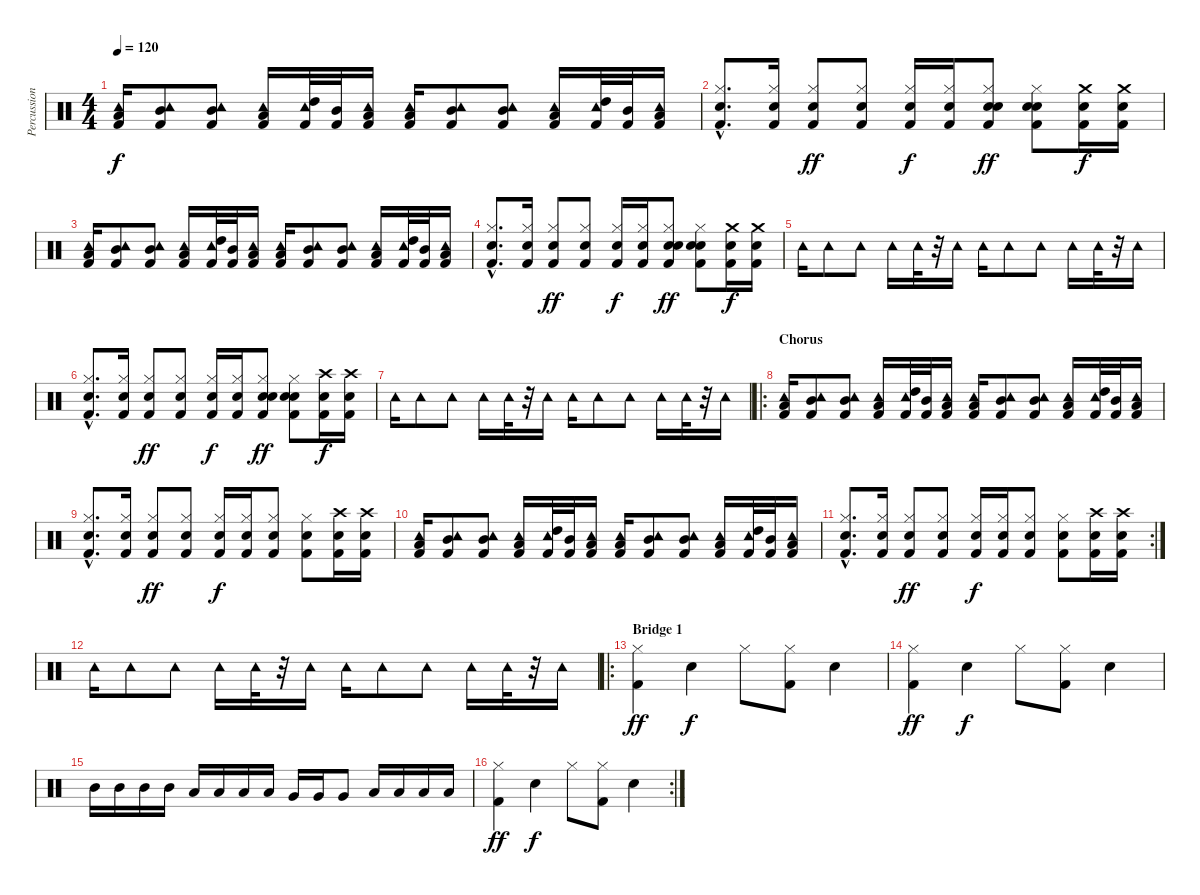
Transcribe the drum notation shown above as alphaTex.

\track ("Percussion" "Percussion") {instrument percussion}
\staff {score}
\articulation defaults
\ts (4 4)
\tempo 120
\clef neutral
\ks c
("Tambourine (hit)" "Low Tom (hit)" "Kick (hit) 2").16{dy f} ("Tambourine (hit)" "Mid Tom (hit)" "Kick (hit) 2").8 ("Tambourine (hit)" "Mid Tom (hit)" "Kick (hit) 2").8 ("Tambourine (hit)" "Low Tom (hit)" "Kick (hit) 2").16 ("Tambourine (hit)" "High Tom (hit)" "Kick (hit) 2").32 ("Mid Tom (hit)" "Kick (hit) 2").32 ("Tambourine (hit)" "Low Tom (hit)" "Kick (hit) 2").16 ("Tambourine (hit)" "Low Tom (hit)" "Kick (hit) 2").16 ("Tambourine (hit)" "Mid Tom (hit)" "Kick (hit) 2").8 ("Tambourine (hit)" "Mid Tom (hit)" "Kick (hit) 2").8 ("Tambourine (hit)" "Low Tom (hit)" "Kick (hit) 2").16 ("Tambourine (hit)" "High Tom (hit)" "Kick (hit) 2").32 ("Mid Tom (hit)" "Kick (hit) 2").32 ("Tambourine (hit)" "Low Tom (hit)" "Kick (hit) 2").16 |
("Hi-Hat (closed)"{hac} "Snare (hit) 2"{hac} "Kick (hit) 2"{hac}).8{d} ("Hi-Hat (closed)" "Snare (hit) 2" "Kick (hit) 2").16 ("Hi-Hat (closed)" "Hand Clap (hit)" "Kick (hit) 2").8{dy ff} ("Hi-Hat (closed)" "Hand Clap (hit)" "Kick (hit) 2").8 ("Hi-Hat (closed)" "Snare (hit) 2" "Kick (hit) 2").16{dy f} ("Hi-Hat (closed)" "Snare (hit) 2" "Kick (hit) 2").16 ("Hi-Hat (closed)" "Hand Clap (hit)" "Electric Snare (hit)" "Kick (hit) 2").8{dy ff} ("Hi-Hat (closed)" "Hand Clap (hit)" "Electric Snare (hit)" "Kick (hit) 2").8 ("Crash medium (hit)" "Electric Snare (hit)" "Kick (hit) 2").16{dy f} ("Crash medium (hit)" "Electric Snare (hit)" "Kick (hit) 2").16 |
("Tambourine (hit)" "Low Tom (hit)" "Kick (hit) 2").16 ("Tambourine (hit)" "Mid Tom (hit)" "Kick (hit) 2").8 ("Tambourine (hit)" "Mid Tom (hit)" "Kick (hit) 2").8 ("Tambourine (hit)" "Low Tom (hit)" "Kick (hit) 2").16 ("Tambourine (hit)" "High Tom (hit)" "Kick (hit) 2").32 ("Mid Tom (hit)" "Kick (hit) 2").32 ("Tambourine (hit)" "Low Tom (hit)" "Kick (hit) 2").16 ("Tambourine (hit)" "Low Tom (hit)" "Kick (hit) 2").16 ("Tambourine (hit)" "Mid Tom (hit)" "Kick (hit) 2").8 ("Tambourine (hit)" "Mid Tom (hit)" "Kick (hit) 2").8 ("Tambourine (hit)" "Low Tom (hit)" "Kick (hit) 2").16 ("Tambourine (hit)" "High Tom (hit)" "Kick (hit) 2").32 ("Mid Tom (hit)" "Kick (hit) 2").32 ("Tambourine (hit)" "Low Tom (hit)" "Kick (hit) 2").16 |
("Hi-Hat (closed)"{hac} "Snare (hit) 2"{hac} "Kick (hit) 2"{hac}).8{d} ("Hi-Hat (closed)" "Snare (hit) 2" "Kick (hit) 2").16 ("Hi-Hat (closed)" "Hand Clap (hit)" "Kick (hit) 2").8{dy ff} ("Hi-Hat (closed)" "Hand Clap (hit)" "Kick (hit) 2").8 ("Hi-Hat (closed)" "Snare (hit) 2" "Kick (hit) 2").16{dy f} ("Hi-Hat (closed)" "Snare (hit) 2" "Kick (hit) 2").16 ("Hi-Hat (closed)" "Hand Clap (hit)" "Electric Snare (hit)" "Kick (hit) 2").8{dy ff} ("Hi-Hat (closed)" "Hand Clap (hit)" "Electric Snare (hit)" "Kick (hit) 2").8 ("Crash medium (hit)" "Electric Snare (hit)" "Kick (hit) 2").16{dy f} ("Crash medium (hit)" "Electric Snare (hit)" "Kick (hit) 2").16 |
"Tambourine (hit)".16 "Tambourine (hit)".8 "Tambourine (hit)".8 "Tambourine (hit)".16 "Tambourine (hit)".32 r.32 "Tambourine (hit)".16 "Tambourine (hit)".16 "Tambourine (hit)".8 "Tambourine (hit)".8 "Tambourine (hit)".16 "Tambourine (hit)".32 r.32 "Tambourine (hit)".16 |
("Hi-Hat (closed)"{hac} "Snare (hit) 2"{hac} "Kick (hit) 2"{hac}).8{d} ("Hi-Hat (closed)" "Snare (hit) 2" "Kick (hit) 2").16 ("Hi-Hat (closed)" "Hand Clap (hit)" "Kick (hit) 2").8{dy ff} ("Hi-Hat (closed)" "Hand Clap (hit)" "Kick (hit) 2").8 ("Hi-Hat (closed)" "Snare (hit) 2" "Kick (hit) 2").16{dy f} ("Hi-Hat (closed)" "Snare (hit) 2" "Kick (hit) 2").16 ("Hi-Hat (closed)" "Hand Clap (hit)" "Electric Snare (hit)" "Kick (hit) 2").8{dy ff} ("Hi-Hat (closed)" "Hand Clap (hit)" "Electric Snare (hit)" "Kick (hit) 2").8 ("Crash high (hit)" "Electric Snare (hit)" "Kick (hit) 2").16{dy f} ("Crash high (hit)" "Electric Snare (hit)" "Kick (hit) 2").16 |
"Tambourine (hit)".16 "Tambourine (hit)".8 "Tambourine (hit)".8 "Tambourine (hit)".16 "Tambourine (hit)".32 r.32 "Tambourine (hit)".16 "Tambourine (hit)".16 "Tambourine (hit)".8 "Tambourine (hit)".8 "Tambourine (hit)".16 "Tambourine (hit)".32 r.32 "Tambourine (hit)".16 |
\ro
\section ("" "Chorus")
("Tambourine (hit)" "Low Tom (hit)" "Kick (hit) 2").16 ("Tambourine (hit)" "Mid Tom (hit)" "Kick (hit) 2").8 ("Tambourine (hit)" "Mid Tom (hit)" "Kick (hit) 2").8 ("Tambourine (hit)" "Low Tom (hit)" "Kick (hit) 2").16 ("Tambourine (hit)" "High Tom (hit)" "Kick (hit) 2").32 ("Mid Tom (hit)" "Kick (hit) 2").32 ("Tambourine (hit)" "Low Tom (hit)" "Kick (hit) 2").16 ("Tambourine (hit)" "Low Tom (hit)" "Kick (hit) 2").16 ("Tambourine (hit)" "Mid Tom (hit)" "Kick (hit) 2").8 ("Tambourine (hit)" "Mid Tom (hit)" "Kick (hit) 2").8 ("Tambourine (hit)" "Low Tom (hit)" "Kick (hit) 2").16 ("Tambourine (hit)" "High Tom (hit)" "Kick (hit) 2").32 ("Mid Tom (hit)" "Kick (hit) 2").32 ("Tambourine (hit)" "Low Tom (hit)" "Kick (hit) 2").16 |
("Hi-Hat (closed)"{hac} "Snare (hit) 2"{hac} "Kick (hit) 2"{hac}).8{d} ("Hi-Hat (closed)" "Snare (hit) 2" "Kick (hit) 2").16 ("Hi-Hat (closed)" "Electric Snare (hit)" "Kick (hit) 2").8{dy ff} ("Hi-Hat (closed)" "Electric Snare (hit)" "Kick (hit) 2").8 ("Hi-Hat (closed)" "Snare (hit) 2" "Kick (hit) 2").16{dy f} ("Hi-Hat (closed)" "Snare (hit) 2" "Kick (hit) 2").16 ("Hi-Hat (closed)" "Electric Snare (hit)" "Kick (hit) 2").8 ("Hi-Hat (closed)" "Electric Snare (hit)" "Kick (hit) 2").8 ("Crash high (hit)" "Electric Snare (hit)" "Kick (hit) 2").16 ("Crash high (hit)" "Electric Snare (hit)" "Kick (hit) 2").16 |
("Tambourine (hit)" "Low Tom (hit)" "Kick (hit) 2").16 ("Tambourine (hit)" "Mid Tom (hit)" "Kick (hit) 2").8 ("Tambourine (hit)" "Mid Tom (hit)" "Kick (hit) 2").8 ("Tambourine (hit)" "Low Tom (hit)" "Kick (hit) 2").16 ("Tambourine (hit)" "High Tom (hit)" "Kick (hit) 2").32 ("Mid Tom (hit)" "Kick (hit) 2").32 ("Tambourine (hit)" "Low Tom (hit)" "Kick (hit) 2").16 ("Tambourine (hit)" "Low Tom (hit)" "Kick (hit) 2").16 ("Tambourine (hit)" "Mid Tom (hit)" "Kick (hit) 2").8 ("Tambourine (hit)" "Mid Tom (hit)" "Kick (hit) 2").8 ("Tambourine (hit)" "Low Tom (hit)" "Kick (hit) 2").16 ("Tambourine (hit)" "High Tom (hit)" "Kick (hit) 2").32 ("Mid Tom (hit)" "Kick (hit) 2").32 ("Tambourine (hit)" "Low Tom (hit)" "Kick (hit) 2").16 |
\rc 2
("Hi-Hat (closed)"{hac} "Snare (hit) 2"{hac} "Kick (hit) 2"{hac}).8{d} ("Hi-Hat (closed)" "Snare (hit) 2" "Kick (hit) 2").16 ("Hi-Hat (closed)" "Electric Snare (hit)" "Kick (hit) 2").8{dy ff} ("Hi-Hat (closed)" "Electric Snare (hit)" "Kick (hit) 2").8 ("Hi-Hat (closed)" "Snare (hit) 2" "Kick (hit) 2").16{dy f} ("Hi-Hat (closed)" "Snare (hit) 2" "Kick (hit) 2").16 ("Hi-Hat (closed)" "Electric Snare (hit)" "Kick (hit) 2").8 ("Hi-Hat (closed)" "Electric Snare (hit)" "Kick (hit) 2").8 ("Crash high (hit)" "Electric Snare (hit)" "Kick (hit) 2").16 ("Crash high (hit)" "Electric Snare (hit)" "Kick (hit) 2").16 |
"Tambourine (hit)".16 "Tambourine (hit)".8 "Tambourine (hit)".8 "Tambourine (hit)".16 "Tambourine (hit)".32 r.32 "Tambourine (hit)".16 "Tambourine (hit)".16 "Tambourine (hit)".8 "Tambourine (hit)".8 "Tambourine (hit)".16 "Tambourine (hit)".32 r.32 "Tambourine (hit)".16 |
\ro
\section ("" "Bridge 1")
("Hi-Hat (closed)" "Kick (hit) 2").4{dy ff} "Electric Snare (hit)".4{dy f} "Hi-Hat (closed)".8 ("Hi-Hat (closed)" "Kick (hit) 2").8 "Electric Snare (hit)".4 |
("Hi-Hat (closed)" "Kick (hit) 2").4{dy ff} "Electric Snare (hit)".4{dy f} "Hi-Hat (closed)".8 ("Hi-Hat (closed)" "Kick (hit) 2").8 "Electric Snare (hit)".4 |
"Mid Tom (hit)".16 "Mid Tom (hit)".16 "Mid Tom (hit)".16 "Mid Tom (hit)".16 "Low Tom (hit)".16 "Low Tom (hit)".16 "Low Tom (hit)".16 "Low Tom (hit)".16 "Very Low Tom (hit)".16 "Very Low Tom (hit)".16 "Very Low Tom (hit)".8 "Low Floor Tom (hit)".16 "Low Floor Tom (hit)".16 "Low Floor Tom (hit)".16 "Low Floor Tom (hit)".16 |
\rc 2
("Hi-Hat (closed)" "Kick (hit) 2").4{dy ff} "Electric Snare (hit)".4{dy f} "Hi-Hat (closed)".8 ("Hi-Hat (closed)" "Kick (hit) 2").8 "Electric Snare (hit)".4
